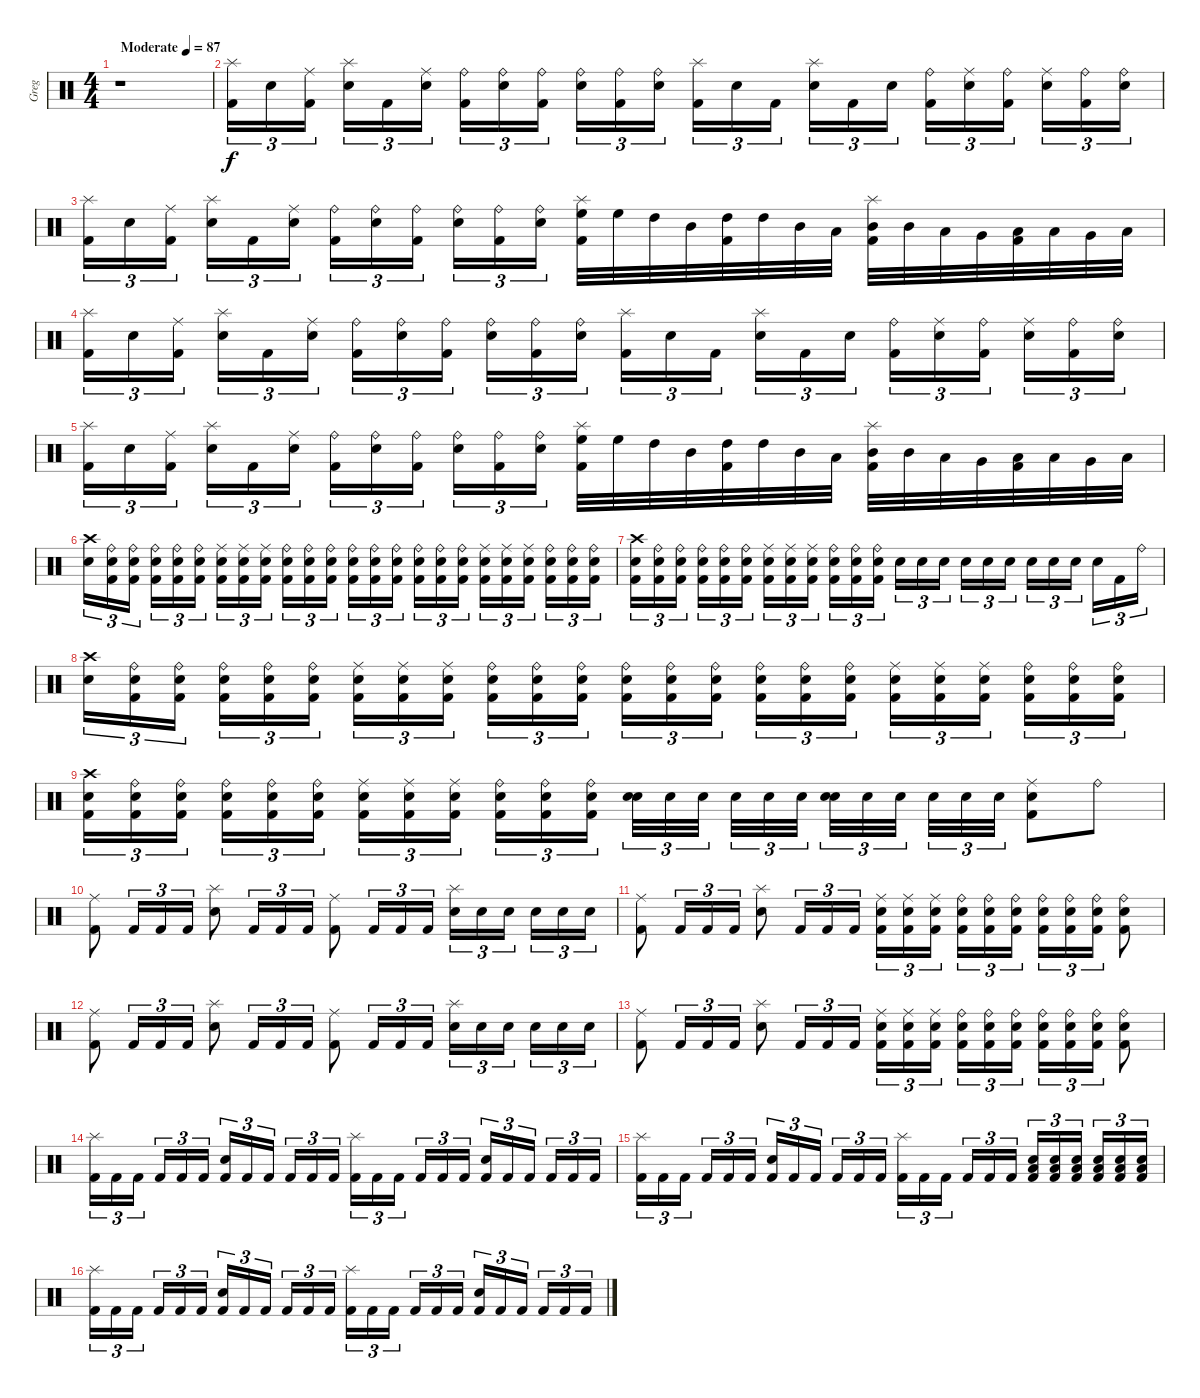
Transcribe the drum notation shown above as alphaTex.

\track ("Greg" "Greg") {instrument percussion}
\staff {score}
\articulation defaults
\ts (4 4)
\tempo (87 "Moderate")
\clef neutral
\ks c
r.1{dy f} |
("Splash (hit)" "Kick (hit) 2").16{tu (3 2)} "Snare (hit) 2".16{tu (3 2)} ("Ride (middle)" "Kick (hit) 2").16{tu (3 2) beam splitsecondary} ("Splash (hit)" "Snare (hit) 2").16{tu (3 2)} "Kick (hit) 2".16{tu (3 2)} ("Ride (middle)" "Snare (hit) 2").16{tu (3 2)} ("Ride (bell)" "Kick (hit) 2").16{tu (3 2)} ("Ride (bell)" "Snare (hit) 2").16{tu (3 2)} ("Ride (bell)" "Kick (hit) 2").16{tu (3 2) beam splitsecondary} ("Ride (bell)" "Snare (hit) 2").16{tu (3 2)} ("Ride (bell)" "Kick (hit) 2").16{tu (3 2)} ("Ride (bell)" "Snare (hit) 2").16{tu (3 2)} ("Splash (hit)" "Kick (hit) 2").16{tu (3 2)} "Snare (hit) 2".16{tu (3 2)} "Kick (hit) 2".16{tu (3 2) beam splitsecondary} ("Splash (hit)" "Snare (hit) 2").16{tu (3 2)} "Kick (hit) 2".16{tu (3 2)} "Snare (hit) 2".16{tu (3 2)} ("Ride (bell)" "Kick (hit) 2").16{tu (3 2)} ("Ride (middle)" "Snare (hit) 2").16{tu (3 2)} ("Ride (bell)" "Kick (hit) 2").16{tu (3 2) beam splitsecondary} ("Ride (middle)" "Snare (hit) 2").16{tu (3 2)} ("Ride (bell)" "Kick (hit) 2").16{tu (3 2)} ("Ride (bell)" "Snare (hit) 2").16{tu (3 2)} |
("Splash (hit)" "Kick (hit) 2").16{tu (3 2)} "Snare (hit) 2".16{tu (3 2)} ("Ride (middle)" "Kick (hit) 2").16{tu (3 2) beam splitsecondary} ("Splash (hit)" "Snare (hit) 2").16{tu (3 2)} "Kick (hit) 2".16{tu (3 2)} ("Ride (middle)" "Snare (hit) 2").16{tu (3 2)} ("Ride (bell)" "Kick (hit) 2").16{tu (3 2)} ("Ride (bell)" "Snare (hit) 2").16{tu (3 2)} ("Ride (bell)" "Kick (hit) 2").16{tu (3 2) beam splitsecondary} ("Ride (bell)" "Snare (hit) 2").16{tu (3 2)} ("Ride (bell)" "Kick (hit) 2").16{tu (3 2)} ("Ride (bell)" "Snare (hit) 2").16{tu (3 2)} ("Splash (hit)" "High Floor Tom (hit)" "Kick (hit) 2").32 "High Floor Tom (hit)".32 "High Tom (hit)".32 "Mid Tom (hit)".32 ("High Tom (hit)" "Kick (hit) 2").32 "High Tom (hit)".32 "Mid Tom (hit)".32 "Low Tom (hit)".32 ("Splash (hit)" "Mid Tom (hit)" "Kick (hit) 2").32 "Mid Tom (hit)".32 "Low Tom (hit)".32 "Very Low Tom (hit)".32 ("Low Tom (hit)" "Kick (hit) 2").32 "Low Tom (hit)".32 "Very Low Tom (hit)".32 "Low Floor Tom (hit)".32 |
("Splash (hit)" "Kick (hit) 2").16{tu (3 2)} "Snare (hit) 2".16{tu (3 2)} ("Ride (middle)" "Kick (hit) 2").16{tu (3 2) beam splitsecondary} ("Splash (hit)" "Snare (hit) 2").16{tu (3 2)} "Kick (hit) 2".16{tu (3 2)} ("Ride (middle)" "Snare (hit) 2").16{tu (3 2)} ("Ride (bell)" "Kick (hit) 2").16{tu (3 2)} ("Ride (bell)" "Snare (hit) 2").16{tu (3 2)} ("Ride (bell)" "Kick (hit) 2").16{tu (3 2) beam splitsecondary} ("Ride (bell)" "Snare (hit) 2").16{tu (3 2)} ("Ride (bell)" "Kick (hit) 2").16{tu (3 2)} ("Ride (bell)" "Snare (hit) 2").16{tu (3 2)} ("Splash (hit)" "Kick (hit) 2").16{tu (3 2)} "Snare (hit) 2".16{tu (3 2)} "Kick (hit) 2".16{tu (3 2) beam splitsecondary} ("Splash (hit)" "Snare (hit) 2").16{tu (3 2)} "Kick (hit) 2".16{tu (3 2)} "Snare (hit) 2".16{tu (3 2)} ("Ride (bell)" "Kick (hit) 2").16{tu (3 2)} ("Ride (middle)" "Snare (hit) 2").16{tu (3 2)} ("Ride (bell)" "Kick (hit) 2").16{tu (3 2) beam splitsecondary} ("Ride (middle)" "Snare (hit) 2").16{tu (3 2)} ("Ride (bell)" "Kick (hit) 2").16{tu (3 2)} ("Ride (bell)" "Snare (hit) 2").16{tu (3 2)} |
("Splash (hit)" "Kick (hit) 2").16{tu (3 2)} "Snare (hit) 2".16{tu (3 2)} ("Ride (middle)" "Kick (hit) 2").16{tu (3 2) beam splitsecondary} ("Splash (hit)" "Snare (hit) 2").16{tu (3 2)} "Kick (hit) 2".16{tu (3 2)} ("Ride (middle)" "Snare (hit) 2").16{tu (3 2)} ("Ride (bell)" "Kick (hit) 2").16{tu (3 2)} ("Ride (bell)" "Snare (hit) 2").16{tu (3 2)} ("Ride (bell)" "Kick (hit) 2").16{tu (3 2) beam splitsecondary} ("Ride (bell)" "Snare (hit) 2").16{tu (3 2)} ("Ride (bell)" "Kick (hit) 2").16{tu (3 2)} ("Ride (bell)" "Snare (hit) 2").16{tu (3 2)} ("Splash (hit)" "High Floor Tom (hit)" "Kick (hit) 2").32 "High Floor Tom (hit)".32 "High Tom (hit)".32 "Mid Tom (hit)".32 ("High Tom (hit)" "Kick (hit) 2").32 "High Tom (hit)".32 "Mid Tom (hit)".32 "Low Tom (hit)".32 ("Splash (hit)" "Mid Tom (hit)" "Kick (hit) 2").32 "Mid Tom (hit)".32 "Low Tom (hit)".32 "Very Low Tom (hit)".32 ("Low Tom (hit)" "Kick (hit) 2").32 "Low Tom (hit)".32 "Very Low Tom (hit)".32 "Low Floor Tom (hit)".32 |
("Crash high (hit)" "Snare (hit) 2").16{tu (3 2)} ("Ride (bell)" "Snare (hit) 2" "Kick (hit) 2").16{tu (3 2)} ("Ride (bell)" "Snare (hit) 2" "Kick (hit) 2").16{tu (3 2) beam splitsecondary} ("Ride (bell)" "Snare (hit) 2" "Kick (hit) 2").16{tu (3 2)} ("Ride (bell)" "Snare (hit) 2" "Kick (hit) 2").16{tu (3 2)} ("Ride (bell)" "Snare (hit) 2" "Kick (hit) 2").16{tu (3 2)} ("Ride (middle)" "Snare (hit) 2" "Kick (hit) 2").16{tu (3 2)} ("Ride (middle)" "Snare (hit) 2" "Kick (hit) 2").16{tu (3 2)} ("Ride (middle)" "Snare (hit) 2" "Kick (hit) 2").16{tu (3 2) beam splitsecondary} ("Ride (bell)" "Snare (hit) 2" "Kick (hit) 2").16{tu (3 2)} ("Ride (bell)" "Snare (hit) 2" "Kick (hit) 2").16{tu (3 2)} ("Ride (bell)" "Snare (hit) 2" "Kick (hit) 2").16{tu (3 2)} ("Ride (bell)" "Snare (hit) 2" "Kick (hit) 2").16{tu (3 2)} ("Ride (bell)" "Snare (hit) 2" "Kick (hit) 2").16{tu (3 2)} ("Ride (bell)" "Snare (hit) 2" "Kick (hit) 2").16{tu (3 2) beam splitsecondary} ("Ride (bell)" "Snare (hit) 2" "Kick (hit) 2").16{tu (3 2)} ("Ride (bell)" "Snare (hit) 2" "Kick (hit) 2").16{tu (3 2)} ("Ride (bell)" "Snare (hit) 2" "Kick (hit) 2").16{tu (3 2)} ("Ride (middle)" "Snare (hit) 2" "Kick (hit) 2").16{tu (3 2)} ("Ride (middle)" "Snare (hit) 2" "Kick (hit) 2").16{tu (3 2)} ("Ride (middle)" "Snare (hit) 2" "Kick (hit) 2").16{tu (3 2) beam splitsecondary} ("Ride (bell)" "Snare (hit) 2" "Kick (hit) 2").16{tu (3 2)} ("Ride (bell)" "Snare (hit) 2" "Kick (hit) 2").16{tu (3 2)} ("Ride (bell)" "Snare (hit) 2" "Kick (hit) 2").16{tu (3 2)} |
("Crash high (hit)" "Snare (hit) 2" "Kick (hit) 2").16{tu (3 2)} ("Ride (bell)" "Snare (hit) 2" "Kick (hit) 2").16{tu (3 2)} ("Ride (bell)" "Snare (hit) 2" "Kick (hit) 2").16{tu (3 2) beam splitsecondary} ("Ride (bell)" "Snare (hit) 2" "Kick (hit) 2").16{tu (3 2)} ("Ride (bell)" "Snare (hit) 2" "Kick (hit) 2").16{tu (3 2)} ("Ride (bell)" "Snare (hit) 2" "Kick (hit) 2").16{tu (3 2)} ("Ride (middle)" "Snare (hit) 2" "Kick (hit) 2").16{tu (3 2)} ("Ride (middle)" "Snare (hit) 2" "Kick (hit) 2").16{tu (3 2)} ("Ride (middle)" "Snare (hit) 2" "Kick (hit) 2").16{tu (3 2) beam splitsecondary} ("Ride (bell)" "Snare (hit) 2" "Kick (hit) 2").16{tu (3 2)} ("Ride (bell)" "Snare (hit) 2" "Kick (hit) 2").16{tu (3 2)} ("Ride (bell)" "Snare (hit) 2" "Kick (hit) 2").16{tu (3 2)} "Snare (hit) 2".16{tu (3 2)} "Snare (hit) 2".16{tu (3 2)} "Snare (hit) 2".16{tu (3 2) beam splitsecondary} "Snare (hit) 2".16{tu (3 2)} "Snare (hit) 2".16{tu (3 2)} "Snare (hit) 2".16{tu (3 2)} "Snare (hit) 2".16{tu (3 2)} "Snare (hit) 2".16{tu (3 2)} "Snare (hit) 2".16{tu (3 2) beam splitsecondary} "Electric Snare (hit)".16{tu (3 2)} "Kick (hit) 2".16{tu (3 2)} "Ride (bell)".16{tu (3 2)} |
("Crash high (hit)" "Snare (hit) 2").16{tu (3 2)} ("Ride (bell)" "Snare (hit) 2" "Kick (hit) 2").16{tu (3 2)} ("Ride (bell)" "Snare (hit) 2" "Kick (hit) 2").16{tu (3 2) beam splitsecondary} ("Ride (bell)" "Snare (hit) 2" "Kick (hit) 2").16{tu (3 2)} ("Ride (bell)" "Snare (hit) 2" "Kick (hit) 2").16{tu (3 2)} ("Ride (bell)" "Snare (hit) 2" "Kick (hit) 2").16{tu (3 2)} ("Ride (middle)" "Snare (hit) 2" "Kick (hit) 2").16{tu (3 2)} ("Ride (middle)" "Snare (hit) 2" "Kick (hit) 2").16{tu (3 2)} ("Ride (middle)" "Snare (hit) 2" "Kick (hit) 2").16{tu (3 2) beam splitsecondary} ("Ride (bell)" "Snare (hit) 2" "Kick (hit) 2").16{tu (3 2)} ("Ride (bell)" "Snare (hit) 2" "Kick (hit) 2").16{tu (3 2)} ("Ride (bell)" "Snare (hit) 2" "Kick (hit) 2").16{tu (3 2)} ("Ride (bell)" "Snare (hit) 2" "Kick (hit) 2").16{tu (3 2)} ("Ride (bell)" "Snare (hit) 2" "Kick (hit) 2").16{tu (3 2)} ("Ride (bell)" "Snare (hit) 2" "Kick (hit) 2").16{tu (3 2) beam splitsecondary} ("Ride (bell)" "Snare (hit) 2" "Kick (hit) 2").16{tu (3 2)} ("Ride (bell)" "Snare (hit) 2" "Kick (hit) 2").16{tu (3 2)} ("Ride (bell)" "Snare (hit) 2" "Kick (hit) 2").16{tu (3 2)} ("Ride (middle)" "Snare (hit) 2" "Kick (hit) 2").16{tu (3 2)} ("Ride (middle)" "Snare (hit) 2" "Kick (hit) 2").16{tu (3 2)} ("Ride (middle)" "Snare (hit) 2" "Kick (hit) 2").16{tu (3 2) beam splitsecondary} ("Ride (bell)" "Snare (hit) 2" "Kick (hit) 2").16{tu (3 2)} ("Ride (bell)" "Snare (hit) 2" "Kick (hit) 2").16{tu (3 2)} ("Ride (bell)" "Snare (hit) 2" "Kick (hit) 2").16{tu (3 2)} |
("Crash high (hit)" "Snare (hit) 2" "Kick (hit) 2").16{tu (3 2)} ("Ride (bell)" "Snare (hit) 2" "Kick (hit) 2").16{tu (3 2)} ("Ride (bell)" "Snare (hit) 2" "Kick (hit) 2").16{tu (3 2) beam splitsecondary} ("Ride (bell)" "Snare (hit) 2" "Kick (hit) 2").16{tu (3 2)} ("Ride (bell)" "Snare (hit) 2" "Kick (hit) 2").16{tu (3 2)} ("Ride (bell)" "Snare (hit) 2" "Kick (hit) 2").16{tu (3 2)} ("Ride (middle)" "Snare (hit) 2" "Kick (hit) 2").16{tu (3 2)} ("Ride (middle)" "Snare (hit) 2" "Kick (hit) 2").16{tu (3 2)} ("Ride (middle)" "Snare (hit) 2" "Kick (hit) 2").16{tu (3 2) beam splitsecondary} ("Ride (bell)" "Snare (hit) 2" "Kick (hit) 2").16{tu (3 2)} ("Ride (bell)" "Snare (hit) 2" "Kick (hit) 2").16{tu (3 2)} ("Ride (bell)" "Snare (hit) 2" "Kick (hit) 2").16{tu (3 2)} ("Snare (hit) 2" "Electric Snare (hit)").32{tu (3 2)} "Snare (hit) 2".32{tu (3 2)} "Snare (hit) 2".32{tu (3 2) beam splitsecondary} "Snare (hit) 2".32{tu (3 2)} "Snare (hit) 2".32{tu (3 2)} "Snare (hit) 2".32{tu (3 2) beam splitsecondary} ("Snare (hit) 2" "Electric Snare (hit)").32{tu (3 2)} "Snare (hit) 2".32{tu (3 2)} "Snare (hit) 2".32{tu (3 2) beam splitsecondary} "Snare (hit) 2".32{tu (3 2)} "Snare (hit) 2".32{tu (3 2)} "Snare (hit) 2".32{tu (3 2)} ("Ride (middle)" "Snare (hit) 2" "Kick (hit) 2").8 "Ride (bell)".8 |
("Ride (middle)" "Kick (hit) 2").8 "Kick (hit) 2".16{tu (3 2)} "Kick (hit) 2".16{tu (3 2)} "Kick (hit) 2".16{tu (3 2)} ("Splash (hit)" "Snare (hit) 2").8 "Kick (hit) 2".16{tu (3 2)} "Kick (hit) 2".16{tu (3 2)} "Kick (hit) 2".16{tu (3 2)} ("Ride (middle)" "Kick (hit) 2").8 "Kick (hit) 2".16{tu (3 2)} "Kick (hit) 2".16{tu (3 2)} "Kick (hit) 2".16{tu (3 2)} ("Splash (hit)" "Snare (hit) 2").16{tu (3 2)} "Snare (hit) 2".16{tu (3 2)} "Snare (hit) 2".16{tu (3 2) beam splitsecondary} "Snare (hit) 2".16{tu (3 2)} "Snare (hit) 2".16{tu (3 2)} "Snare (hit) 2".16{tu (3 2)} |
("Ride (middle)" "Kick (hit) 2").8 "Kick (hit) 2".16{tu (3 2)} "Kick (hit) 2".16{tu (3 2)} "Kick (hit) 2".16{tu (3 2)} ("Splash (hit)" "Snare (hit) 2").8 "Kick (hit) 2".16{tu (3 2)} "Kick (hit) 2".16{tu (3 2)} "Kick (hit) 2".16{tu (3 2)} ("Ride (middle)" "Snare (hit) 2" "Kick (hit) 2").16{tu (3 2)} ("Ride (middle)" "Snare (hit) 2" "Kick (hit) 2").16{tu (3 2)} ("Ride (middle)" "Snare (hit) 2" "Kick (hit) 2").16{tu (3 2) beam splitsecondary} ("Ride (bell)" "Snare (hit) 2" "Kick (hit) 2").16{tu (3 2)} ("Ride (bell)" "Snare (hit) 2" "Kick (hit) 2").16{tu (3 2)} ("Ride (bell)" "Snare (hit) 2" "Kick (hit) 2").16{tu (3 2)} ("Ride (bell)" "Snare (hit) 2" "Kick (hit) 2").16{tu (3 2)} ("Ride (bell)" "Snare (hit) 2" "Kick (hit) 2").16{tu (3 2)} ("Ride (bell)" "Snare (hit) 2" "Kick (hit) 2").16{tu (3 2)} ("Ride (bell)" "Snare (hit) 2" "Kick (hit) 2").8 |
("Ride (middle)" "Kick (hit) 2").8 "Kick (hit) 2".16{tu (3 2)} "Kick (hit) 2".16{tu (3 2)} "Kick (hit) 2".16{tu (3 2)} ("Splash (hit)" "Snare (hit) 2").8 "Kick (hit) 2".16{tu (3 2)} "Kick (hit) 2".16{tu (3 2)} "Kick (hit) 2".16{tu (3 2)} ("Ride (middle)" "Kick (hit) 2").8 "Kick (hit) 2".16{tu (3 2)} "Kick (hit) 2".16{tu (3 2)} "Kick (hit) 2".16{tu (3 2)} ("Splash (hit)" "Snare (hit) 2").16{tu (3 2)} "Snare (hit) 2".16{tu (3 2)} "Snare (hit) 2".16{tu (3 2) beam splitsecondary} "Snare (hit) 2".16{tu (3 2)} "Snare (hit) 2".16{tu (3 2)} "Snare (hit) 2".16{tu (3 2)} |
("Ride (middle)" "Kick (hit) 2").8 "Kick (hit) 2".16{tu (3 2)} "Kick (hit) 2".16{tu (3 2)} "Kick (hit) 2".16{tu (3 2)} ("Splash (hit)" "Snare (hit) 2").8 "Kick (hit) 2".16{tu (3 2)} "Kick (hit) 2".16{tu (3 2)} "Kick (hit) 2".16{tu (3 2)} ("Ride (middle)" "Snare (hit) 2" "Kick (hit) 2").16{tu (3 2)} ("Ride (middle)" "Snare (hit) 2" "Kick (hit) 2").16{tu (3 2)} ("Ride (middle)" "Snare (hit) 2" "Kick (hit) 2").16{tu (3 2) beam splitsecondary} ("Ride (bell)" "Snare (hit) 2" "Kick (hit) 2").16{tu (3 2)} ("Ride (bell)" "Snare (hit) 2" "Kick (hit) 2").16{tu (3 2)} ("Ride (bell)" "Snare (hit) 2" "Kick (hit) 2").16{tu (3 2)} ("Ride (bell)" "Snare (hit) 2" "Kick (hit) 2").16{tu (3 2)} ("Ride (bell)" "Snare (hit) 2" "Kick (hit) 2").16{tu (3 2)} ("Ride (bell)" "Snare (hit) 2" "Kick (hit) 2").16{tu (3 2)} ("Ride (bell)" "Snare (hit) 2" "Kick (hit) 2").8 |
("Splash (hit)" "Kick (hit) 2").16{tu (3 2)} "Kick (hit) 2".16{tu (3 2)} "Kick (hit) 2".16{tu (3 2) beam splitsecondary} "Kick (hit) 2".16{tu (3 2)} "Kick (hit) 2".16{tu (3 2)} "Kick (hit) 2".16{tu (3 2)} ("Snare (hit) 2" "Kick (hit) 2").16{tu (3 2)} "Kick (hit) 2".16{tu (3 2)} "Kick (hit) 2".16{tu (3 2) beam splitsecondary} "Kick (hit) 2".16{tu (3 2)} "Kick (hit) 2".16{tu (3 2)} "Kick (hit) 2".16{tu (3 2)} ("Splash (hit)" "Kick (hit) 2").16{tu (3 2)} "Kick (hit) 2".16{tu (3 2)} "Kick (hit) 2".16{tu (3 2) beam splitsecondary} "Kick (hit) 2".16{tu (3 2)} "Kick (hit) 2".16{tu (3 2)} "Kick (hit) 2".16{tu (3 2)} ("Snare (hit) 2" "Kick (hit) 2").16{tu (3 2)} "Kick (hit) 2".16{tu (3 2)} "Kick (hit) 2".16{tu (3 2) beam splitsecondary} "Kick (hit) 2".16{tu (3 2)} "Kick (hit) 2".16{tu (3 2)} "Kick (hit) 2".16{tu (3 2)} |
("Splash (hit)" "Kick (hit) 2").16{tu (3 2)} "Kick (hit) 2".16{tu (3 2)} "Kick (hit) 2".16{tu (3 2) beam splitsecondary} "Kick (hit) 2".16{tu (3 2)} "Kick (hit) 2".16{tu (3 2)} "Kick (hit) 2".16{tu (3 2)} ("Snare (hit) 2" "Kick (hit) 2").16{tu (3 2)} "Kick (hit) 2".16{tu (3 2)} "Kick (hit) 2".16{tu (3 2) beam splitsecondary} "Kick (hit) 2".16{tu (3 2)} "Kick (hit) 2".16{tu (3 2)} "Kick (hit) 2".16{tu (3 2)} ("Splash (hit)" "Kick (hit) 2").16{tu (3 2)} "Kick (hit) 2".16{tu (3 2)} "Kick (hit) 2".16{tu (3 2) beam splitsecondary} "Kick (hit) 2".16{tu (3 2)} "Kick (hit) 2".16{tu (3 2)} "Kick (hit) 2".16{tu (3 2)} ("Low Floor Tom (hit)" "Snare (hit) 2" "Kick (hit) 2").16{tu (3 2)} ("Low Floor Tom (hit)" "Snare (hit) 2" "Kick (hit) 2").16{tu (3 2)} ("Low Floor Tom (hit)" "Snare (hit) 2" "Kick (hit) 2").16{tu (3 2) beam splitsecondary} ("Low Floor Tom (hit)" "Snare (hit) 2" "Kick (hit) 2").16{tu (3 2)} ("Low Floor Tom (hit)" "Snare (hit) 2" "Kick (hit) 2").16{tu (3 2)} ("Low Floor Tom (hit)" "Snare (hit) 2" "Kick (hit) 2").16{tu (3 2)} |
("Splash (hit)" "Kick (hit) 2").16{tu (3 2)} "Kick (hit) 2".16{tu (3 2)} "Kick (hit) 2".16{tu (3 2) beam splitsecondary} "Kick (hit) 2".16{tu (3 2)} "Kick (hit) 2".16{tu (3 2)} "Kick (hit) 2".16{tu (3 2)} ("Snare (hit) 2" "Kick (hit) 2").16{tu (3 2)} "Kick (hit) 2".16{tu (3 2)} "Kick (hit) 2".16{tu (3 2) beam splitsecondary} "Kick (hit) 2".16{tu (3 2)} "Kick (hit) 2".16{tu (3 2)} "Kick (hit) 2".16{tu (3 2)} ("Splash (hit)" "Kick (hit) 2").16{tu (3 2)} "Kick (hit) 2".16{tu (3 2)} "Kick (hit) 2".16{tu (3 2) beam splitsecondary} "Kick (hit) 2".16{tu (3 2)} "Kick (hit) 2".16{tu (3 2)} "Kick (hit) 2".16{tu (3 2)} ("Snare (hit) 2" "Kick (hit) 2").16{tu (3 2)} "Kick (hit) 2".16{tu (3 2)} "Kick (hit) 2".16{tu (3 2) beam splitsecondary} "Kick (hit) 2".16{tu (3 2)} "Kick (hit) 2".16{tu (3 2)} "Kick (hit) 2".16{tu (3 2)}
